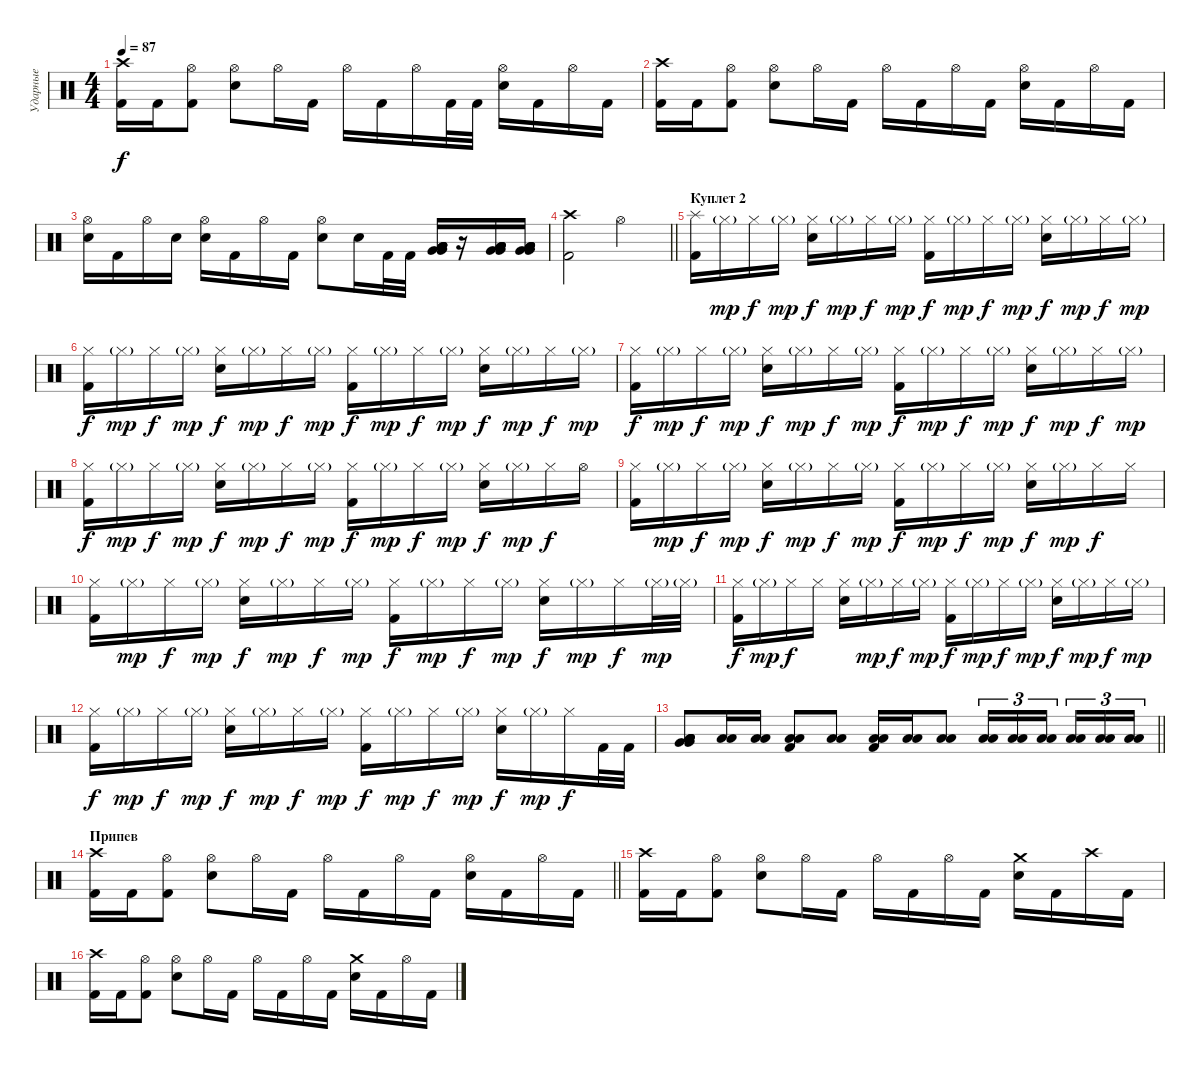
\track ("Ударные" "Ударные") {instrument percussion}
\staff {score}
\articulation defaults
\ts (4 4)
\tempo 87
\clef neutral
\ks c
("Crash high (hit)" "Kick (hit) 2").16{dy f} "Kick (hit) 2".16 ("Hi-Hat (open)" "Kick (hit) 2").8 ("Hi-Hat (open)" "Snare (hit) 2").8 "Hi-Hat (open)".16 "Kick (hit) 2".16 "Hi-Hat (open)".16 "Kick (hit) 2".16 "Hi-Hat (open)".16 "Kick (hit) 2".32 "Kick (hit) 2".32 ("Hi-Hat (open)" "Snare (hit) 2").16 "Kick (hit) 2".16 "Hi-Hat (open)".16 "Kick (hit) 2".16 |
("Crash high (hit)" "Kick (hit) 2").16 "Kick (hit) 2".16 ("Hi-Hat (open)" "Kick (hit) 2").8 ("Hi-Hat (open)" "Snare (hit) 2").8 "Hi-Hat (open)".16 "Kick (hit) 2".16 "Hi-Hat (open)".16 "Kick (hit) 2".16 "Hi-Hat (open)".16 "Kick (hit) 2".16 ("Hi-Hat (open)" "Snare (hit) 2").16 "Kick (hit) 2".16 "Hi-Hat (open)".16 "Kick (hit) 2".16 |
("Hi-Hat (open)" "Snare (hit) 2").16 "Kick (hit) 2".16 "Hi-Hat (open)".16 "Snare (hit) 2".16 ("Hi-Hat (open)" "Snare (hit) 2").16 "Kick (hit) 2".16 "Hi-Hat (open)".16 "Kick (hit) 2".16 ("Hi-Hat (open)" "Snare (hit) 2").8 "Snare (hit) 2".16 "Kick (hit) 2".32 "Kick (hit) 2".32 ("Low Tom (hit)" "Low Tom (hit)" "Very Low Tom (hit)" "Very Low Tom (hit)" "Low Floor Tom (hit)" "Low Floor Tom (hit)").16 r.16 ("Low Tom (hit)" "Low Tom (hit)" "Very Low Tom (hit)" "Very Low Tom (hit)" "Low Floor Tom (hit)" "Low Floor Tom (hit)").16 ("Low Tom (hit)" "Low Tom (hit)" "Very Low Tom (hit)" "Very Low Tom (hit)" "Low Floor Tom (hit)" "Low Floor Tom (hit)").16 |
\barLineRight lightlight
("Crash high (hit)" "Kick (hit) 2").2 "Hi-Hat (open)".2 |
\section ("" "Куплет 2")
("Splash (hit)" "Kick (hit) 2").16 "Hi-Hat (closed)"{g}.16{dy mp} "Hi-Hat (closed)".16{dy f} "Hi-Hat (closed)"{g}.16{dy mp} ("Hi-Hat (closed)" "Snare (hit) 2").16{dy f} "Hi-Hat (closed)"{g}.16{dy mp} "Hi-Hat (closed)".16{dy f} "Hi-Hat (closed)"{g}.16{dy mp} ("Hi-Hat (closed)" "Kick (hit) 2").16{dy f} "Hi-Hat (closed)"{g}.16{dy mp} "Hi-Hat (closed)".16{dy f} "Hi-Hat (closed)"{g}.16{dy mp} ("Hi-Hat (closed)" "Snare (hit) 2").16{dy f} "Hi-Hat (closed)"{g}.16{dy mp} "Hi-Hat (closed)".16{dy f} "Hi-Hat (closed)"{g}.16{dy mp} |
("Hi-Hat (closed)" "Kick (hit) 2").16{dy f} "Hi-Hat (closed)"{g}.16{dy mp} "Hi-Hat (closed)".16{dy f} "Hi-Hat (closed)"{g}.16{dy mp} ("Hi-Hat (closed)" "Snare (hit) 2").16{dy f} "Hi-Hat (closed)"{g}.16{dy mp} "Hi-Hat (closed)".16{dy f} "Hi-Hat (closed)"{g}.16{dy mp} ("Hi-Hat (closed)" "Kick (hit) 2").16{dy f} "Hi-Hat (closed)"{g}.16{dy mp} "Hi-Hat (closed)".16{dy f} "Hi-Hat (closed)"{g}.16{dy mp} ("Hi-Hat (closed)" "Snare (hit) 2").16{dy f} "Hi-Hat (closed)"{g}.16{dy mp} "Hi-Hat (closed)".16{dy f} "Hi-Hat (closed)"{g}.16{dy mp} |
("Hi-Hat (closed)" "Kick (hit) 2").16{dy f} "Hi-Hat (closed)"{g}.16{dy mp} "Hi-Hat (closed)".16{dy f} "Hi-Hat (closed)"{g}.16{dy mp} ("Hi-Hat (closed)" "Snare (hit) 2").16{dy f} "Hi-Hat (closed)"{g}.16{dy mp} "Hi-Hat (closed)".16{dy f} "Hi-Hat (closed)"{g}.16{dy mp} ("Hi-Hat (closed)" "Kick (hit) 2").16{dy f} "Hi-Hat (closed)"{g}.16{dy mp} "Hi-Hat (closed)".16{dy f} "Hi-Hat (closed)"{g}.16{dy mp} ("Hi-Hat (closed)" "Snare (hit) 2").16{dy f} "Hi-Hat (closed)"{g}.16{dy mp} "Hi-Hat (closed)".16{dy f} "Hi-Hat (closed)"{g}.16{dy mp} |
("Hi-Hat (closed)" "Kick (hit) 2").16{dy f} "Hi-Hat (closed)"{g}.16{dy mp} "Hi-Hat (closed)".16{dy f} "Hi-Hat (closed)"{g}.16{dy mp} ("Hi-Hat (closed)" "Snare (hit) 2").16{dy f} "Hi-Hat (closed)"{g}.16{dy mp} "Hi-Hat (closed)".16{dy f} "Hi-Hat (closed)"{g}.16{dy mp} ("Hi-Hat (closed)" "Kick (hit) 2").16{dy f} "Hi-Hat (closed)"{g}.16{dy mp} "Hi-Hat (closed)".16{dy f} "Hi-Hat (closed)"{g}.16{dy mp} ("Hi-Hat (closed)" "Snare (hit) 2").16{dy f} "Hi-Hat (closed)"{g}.16{dy mp} "Hi-Hat (closed)".16{dy f} "Hi-Hat (open)".16 |
("Hi-Hat (closed)" "Kick (hit) 2").16 "Hi-Hat (closed)"{g}.16{dy mp} "Hi-Hat (closed)".16{dy f} "Hi-Hat (closed)"{g}.16{dy mp} ("Hi-Hat (closed)" "Snare (hit) 2").16{dy f} "Hi-Hat (closed)"{g}.16{dy mp} "Hi-Hat (closed)".16{dy f} "Hi-Hat (closed)"{g}.16{dy mp} ("Hi-Hat (closed)" "Kick (hit) 2").16{dy f} "Hi-Hat (closed)"{g}.16{dy mp} "Hi-Hat (closed)".16{dy f} "Hi-Hat (closed)"{g}.16{dy mp} ("Hi-Hat (closed)" "Snare (hit) 2").16{dy f} "Hi-Hat (closed)"{g}.16{dy mp} "Hi-Hat (closed)".16{dy f} "Hi-Hat (closed)".16 |
("Hi-Hat (closed)" "Kick (hit) 2").16 "Hi-Hat (closed)"{g}.16{dy mp} "Hi-Hat (closed)".16{dy f} "Hi-Hat (closed)"{g}.16{dy mp} ("Hi-Hat (closed)" "Snare (hit) 2").16{dy f} "Hi-Hat (closed)"{g}.16{dy mp} "Hi-Hat (closed)".16{dy f} "Hi-Hat (closed)"{g}.16{dy mp} ("Hi-Hat (closed)" "Kick (hit) 2").16{dy f} "Hi-Hat (closed)"{g}.16{dy mp} "Hi-Hat (closed)".16{dy f} "Hi-Hat (closed)"{g}.16{dy mp} ("Hi-Hat (closed)" "Snare (hit) 2").16{dy f} "Hi-Hat (closed)"{g}.16{dy mp} "Hi-Hat (closed)".16{dy f} "Hi-Hat (closed)"{g}.32{dy mp} "Hi-Hat (closed)"{g}.32 |
("Hi-Hat (closed)" "Kick (hit) 2").16{dy f} "Hi-Hat (closed)"{g}.16{dy mp} "Hi-Hat (closed)".16{dy f} "Hi-Hat (closed)".16 ("Hi-Hat (closed)" "Snare (hit) 2").16 "Hi-Hat (closed)"{g}.16{dy mp} "Hi-Hat (closed)".16{dy f} "Hi-Hat (closed)"{g}.16{dy mp} ("Hi-Hat (closed)" "Kick (hit) 2").16{dy f} "Hi-Hat (closed)"{g}.16{dy mp} "Hi-Hat (closed)".16{dy f} "Hi-Hat (closed)"{g}.16{dy mp} ("Hi-Hat (closed)" "Snare (hit) 2").16{dy f} "Hi-Hat (closed)"{g}.16{dy mp} "Hi-Hat (closed)".16{dy f} "Hi-Hat (closed)"{g}.16{dy mp} |
("Hi-Hat (closed)" "Kick (hit) 2").16{dy f} "Hi-Hat (closed)"{g}.16{dy mp} "Hi-Hat (closed)".16{dy f} "Hi-Hat (closed)"{g}.16{dy mp} ("Hi-Hat (closed)" "Snare (hit) 2").16{dy f} "Hi-Hat (closed)"{g}.16{dy mp} "Hi-Hat (closed)".16{dy f} "Hi-Hat (closed)"{g}.16{dy mp} ("Hi-Hat (closed)" "Kick (hit) 2").16{dy f} "Hi-Hat (closed)"{g}.16{dy mp} "Hi-Hat (closed)".16{dy f} "Hi-Hat (closed)"{g}.16{dy mp} ("Hi-Hat (closed)" "Snare (hit) 2").16{dy f} "Hi-Hat (closed)"{g}.16{dy mp} "Hi-Hat (closed)".16{dy f} "Kick (hit) 2".32 "Kick (hit) 2".32 |
\barLineRight lightlight
("Low Tom (hit)" "Low Tom (hit)" "Very Low Tom (hit)" "Very Low Tom (hit)" "Low Floor Tom (hit)" "Low Floor Tom (hit)").8 ("Low Tom (hit)" "Low Tom (hit)").16 ("Low Tom (hit)" "Low Tom (hit)").16 ("Low Tom (hit)" "Low Tom (hit)" "Kick (hit) 2").8 ("Low Tom (hit)" "Low Tom (hit)").8 ("Low Tom (hit)" "Low Tom (hit)" "Kick (hit) 2").16 ("Low Tom (hit)" "Low Tom (hit)").16 ("Low Tom (hit)" "Low Tom (hit)").8 ("Low Tom (hit)" "Low Tom (hit)").16{tu (3 2)} ("Low Tom (hit)" "Low Tom (hit)").16{tu (3 2)} ("Low Tom (hit)" "Low Tom (hit)").16{tu (3 2) beam splitsecondary} ("Low Tom (hit)" "Low Tom (hit)").16{tu (3 2)} ("Low Tom (hit)" "Low Tom (hit)").16{tu (3 2)} ("Low Tom (hit)" "Low Tom (hit)").16{tu (3 2)} |
\section ("" "Припев")
\barLineRight lightlight
("Crash high (hit)" "Kick (hit) 2").16 "Kick (hit) 2".16 ("Hi-Hat (open)" "Kick (hit) 2").8 ("Hi-Hat (open)" "Snare (hit) 2").8 "Hi-Hat (open)".16 "Kick (hit) 2".16 "Hi-Hat (open)".16 "Kick (hit) 2".16 "Hi-Hat (open)".16 "Kick (hit) 2".16 ("Hi-Hat (open)" "Snare (hit) 2").16 "Kick (hit) 2".16 "Hi-Hat (open)".16 "Kick (hit) 2".16 |
("Crash high (hit)" "Kick (hit) 2").16 "Kick (hit) 2".16 ("Hi-Hat (open)" "Kick (hit) 2").8 ("Hi-Hat (open)" "Snare (hit) 2").8 "Hi-Hat (open)".16 "Kick (hit) 2".16 "Hi-Hat (open)".16 "Kick (hit) 2".16 "Hi-Hat (open)".16 "Kick (hit) 2".16 ("Crash medium (hit)" "Snare (hit) 2").16 "Kick (hit) 2".16 "Crash high (hit)".16 "Kick (hit) 2".16 |
("Crash high (hit)" "Kick (hit) 2").16 "Kick (hit) 2".16 ("Hi-Hat (open)" "Kick (hit) 2").8 ("Hi-Hat (open)" "Snare (hit) 2").8 "Hi-Hat (open)".16 "Kick (hit) 2".16 "Hi-Hat (open)".16 "Kick (hit) 2".16 "Hi-Hat (open)".16 "Kick (hit) 2".16 ("Crash medium (hit)" "Snare (hit) 2").16 "Kick (hit) 2".16 "Hi-Hat (open)".16 "Kick (hit) 2".16
